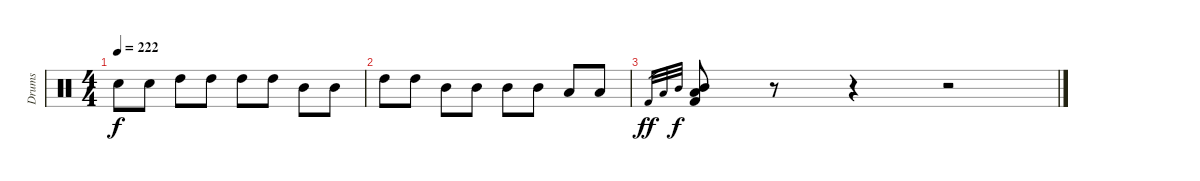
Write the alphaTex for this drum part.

\track ("Drums" "Drums") {instrument percussion}
\staff {score}
\articulation defaults
\ts (4 4)
\tempo 222
\clef neutral
\ks c "Electric Snare (hit)".8{dy f} "Electric Snare (hit)".8 "High Tom (hit)".8 "High Tom (hit)".8 "High Tom (hit)".8 "High Tom (hit)".8 "Mid Tom (hit)".8 "Mid Tom (hit)".8
|
"High Tom (hit)".8 "High Tom (hit)".8 "Mid Tom (hit)".8 "Mid Tom (hit)".8 "Mid Tom (hit)".8 "Mid Tom (hit)".8 "Low Tom (hit)".8 "Low Tom (hit)".8 |
"Kick (hit) 2".32{gr dy ff} "Low Tom (hit)".32{gr} "Mid Tom (hit)".32{gr dy f} ("Kick (hit) 2" "Low Tom (hit)" "Mid Tom (hit)").8 r.8 r.4 r.2
